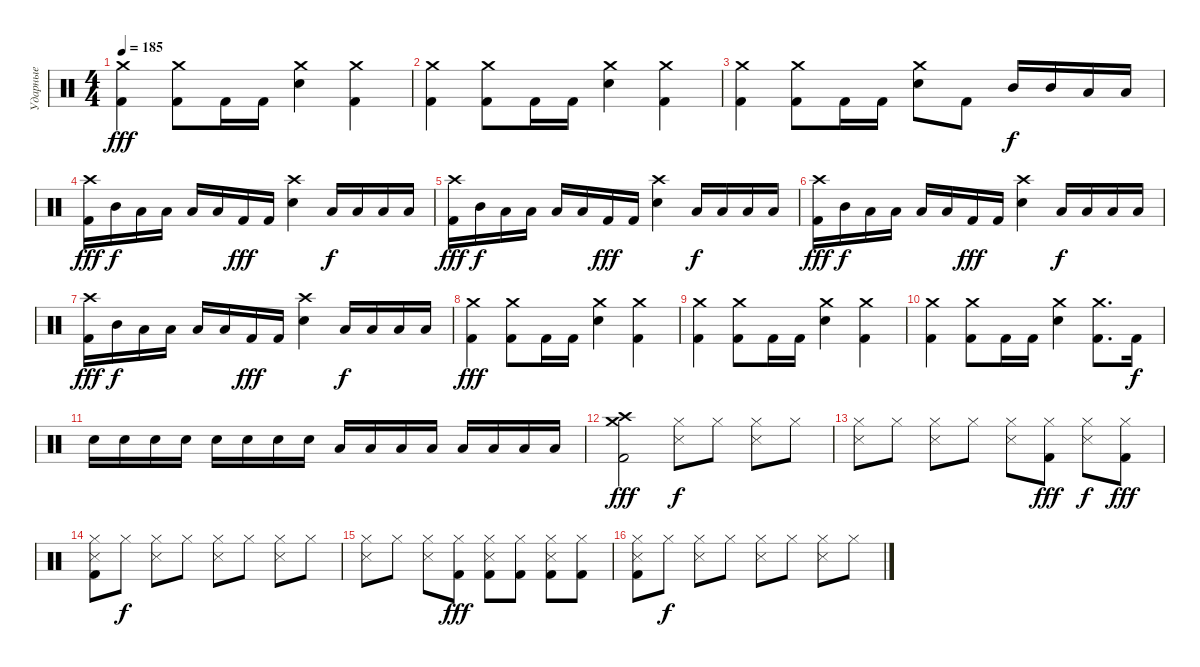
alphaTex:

\track ("Ударные" "Ударные") {instrument percussion}
\staff {score}
\articulation defaults
\ts (4 4)
\tempo 185
\clef neutral
\ks c
("Crash medium (hit)" "Kick (hit) 2").4{dy fff} ("Crash medium (hit)" "Kick (hit) 2").8 "Kick (hit) 2".16 "Kick (hit) 2".16 ("Crash medium (hit)" "Electric Snare (hit)").4 ("Crash medium (hit)" "Kick (hit) 2").4 |
("Crash medium (hit)" "Kick (hit) 2").4 ("Crash medium (hit)" "Kick (hit) 2").8 "Kick (hit) 2".16 "Kick (hit) 2".16 ("Crash medium (hit)" "Electric Snare (hit)").4 ("Crash medium (hit)" "Kick (hit) 2").4 |
("Crash medium (hit)" "Kick (hit) 2").4 ("Crash medium (hit)" "Kick (hit) 2").8 "Kick (hit) 2".16 "Kick (hit) 2".16 ("Crash medium (hit)" "Electric Snare (hit)").8 "Kick (hit) 2".8 "Mid Tom (hit)".16{dy f} "Mid Tom (hit)".16 "Low Tom (hit)".16 "Low Tom (hit)".16 |
("Crash high (hit)" "Kick (hit) 2").16{dy fff} "Mid Tom (hit)".16{dy f} "Low Tom (hit)".16 "Low Tom (hit)".16 "Low Floor Tom (hit)".16 "Low Floor Tom (hit)".16 "Kick (hit) 2".16{dy fff} "Kick (hit) 2".16 ("Crash high (hit)" "Electric Snare (hit)").4 "Low Tom (hit)".16{dy f} "Low Tom (hit)".16 "Low Floor Tom (hit)".16 "Low Floor Tom (hit)".16 |
("Crash high (hit)" "Kick (hit) 2").16{dy fff} "Mid Tom (hit)".16{dy f} "Low Tom (hit)".16 "Low Tom (hit)".16 "Low Floor Tom (hit)".16 "Low Floor Tom (hit)".16 "Kick (hit) 2".16{dy fff} "Kick (hit) 2".16 ("Crash high (hit)" "Electric Snare (hit)").4 "Low Tom (hit)".16{dy f} "Low Tom (hit)".16 "Low Floor Tom (hit)".16 "Low Floor Tom (hit)".16 |
("Crash high (hit)" "Kick (hit) 2").16{dy fff} "Mid Tom (hit)".16{dy f} "Low Tom (hit)".16 "Low Tom (hit)".16 "Low Floor Tom (hit)".16 "Low Floor Tom (hit)".16 "Kick (hit) 2".16{dy fff} "Kick (hit) 2".16 ("Crash high (hit)" "Electric Snare (hit)").4 "Low Tom (hit)".16{dy f} "Low Tom (hit)".16 "Low Floor Tom (hit)".16 "Low Floor Tom (hit)".16 |
("Crash high (hit)" "Kick (hit) 2").16{dy fff} "Mid Tom (hit)".16{dy f} "Low Tom (hit)".16 "Low Tom (hit)".16 "Low Floor Tom (hit)".16 "Low Floor Tom (hit)".16 "Kick (hit) 2".16{dy fff} "Kick (hit) 2".16 ("Crash high (hit)" "Electric Snare (hit)").4 "Low Tom (hit)".16{dy f} "Low Tom (hit)".16 "Low Floor Tom (hit)".16 "Low Floor Tom (hit)".16 |
("Crash medium (hit)" "Kick (hit) 2").4{dy fff} ("Crash medium (hit)" "Kick (hit) 2").8 "Kick (hit) 2".16 "Kick (hit) 2".16 ("Crash medium (hit)" "Electric Snare (hit)").4 ("Crash medium (hit)" "Kick (hit) 2").4 |
("Crash medium (hit)" "Kick (hit) 2").4 ("Crash medium (hit)" "Kick (hit) 2").8 "Kick (hit) 2".16 "Kick (hit) 2".16 ("Crash medium (hit)" "Electric Snare (hit)").4 ("Crash medium (hit)" "Kick (hit) 2").4 |
("Crash medium (hit)" "Kick (hit) 2").4 ("Crash medium (hit)" "Kick (hit) 2").8 "Kick (hit) 2".16 "Kick (hit) 2".16 ("Crash medium (hit)" "Electric Snare (hit)").4 ("Crash medium (hit)" "Kick (hit) 2").8{d} "Kick (hit) 2".16{dy f} |
"Electric Snare (hit)".16 "Electric Snare (hit)".16 "Electric Snare (hit)".16 "Electric Snare (hit)".16 "Electric Snare (hit)".16 "Electric Snare (hit)".16 "Electric Snare (hit)".16 "Electric Snare (hit)".16 "Low Tom (hit)".16 "Low Tom (hit)".16 "Low Tom (hit)".16 "Low Tom (hit)".16 "Low Floor Tom (hit)".16 "Low Floor Tom (hit)".16 "Low Floor Tom (hit)".16 "Low Floor Tom (hit)".16 |
("Crash high (hit)" "Crash medium (hit)" "Kick (hit) 2").2{dy fff} ("Hi-Hat (closed)" "Snare (side stick) 3").8{dy f} "Hi-Hat (closed)".8 ("Hi-Hat (closed)" "Snare (side stick) 3").8 "Hi-Hat (closed)".8 |
("Hi-Hat (closed)" "Snare (side stick) 3").8 "Hi-Hat (closed)".8 ("Hi-Hat (closed)" "Snare (side stick) 3").8 "Hi-Hat (closed)".8 ("Hi-Hat (closed)" "Snare (side stick) 3").8 ("Hi-Hat (closed)" "Kick (hit) 2").8{dy fff} ("Hi-Hat (closed)" "Snare (side stick) 3").8{dy f} ("Hi-Hat (closed)" "Kick (hit) 2").8{dy fff} |
("Hi-Hat (closed)" "Snare (side stick) 3" "Kick (hit) 2").8 "Hi-Hat (closed)".8{dy f} ("Hi-Hat (closed)" "Snare (side stick) 3").8 "Hi-Hat (closed)".8 ("Hi-Hat (closed)" "Snare (side stick) 3").8 "Hi-Hat (closed)".8 ("Hi-Hat (closed)" "Snare (side stick) 3").8 "Hi-Hat (closed)".8 |
("Hi-Hat (closed)" "Snare (side stick) 3").8 "Hi-Hat (closed)".8 ("Hi-Hat (closed)" "Snare (side stick) 3").8 ("Hi-Hat (closed)" "Kick (hit) 2").8{dy fff} ("Hi-Hat (closed)" "Snare (side stick) 3" "Kick (hit) 2").8 ("Hi-Hat (closed)" "Kick (hit) 2").8 ("Hi-Hat (closed)" "Snare (side stick) 3" "Kick (hit) 2").8 ("Hi-Hat (closed)" "Kick (hit) 2").8 |
("Hi-Hat (closed)" "Snare (side stick) 3" "Kick (hit) 2").8 "Hi-Hat (closed)".8{dy f} ("Hi-Hat (closed)" "Snare (side stick) 3").8 "Hi-Hat (closed)".8 ("Hi-Hat (closed)" "Snare (side stick) 3").8 "Hi-Hat (closed)".8 ("Hi-Hat (closed)" "Snare (side stick) 3").8 "Hi-Hat (closed)".8
